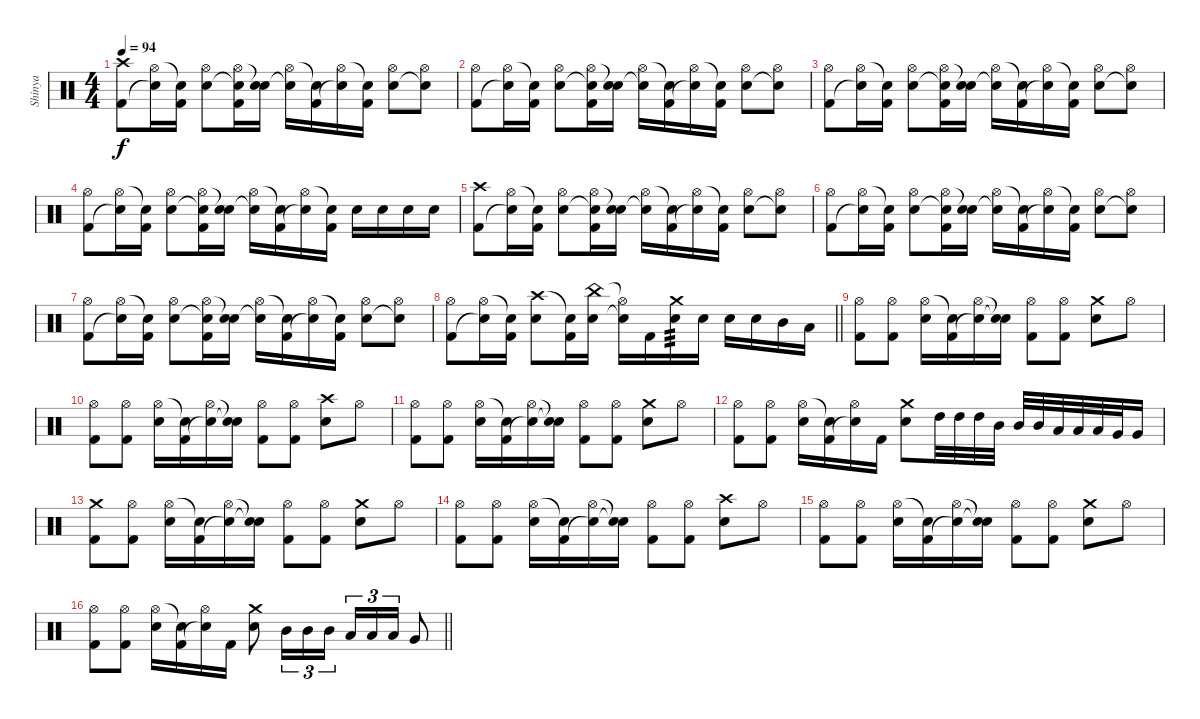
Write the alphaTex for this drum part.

\track ("Shinya" "Shinya") {instrument percussion}
\staff {score}
\articulation defaults
\ts (4 4)
\tempo 94
\clef neutral
\ks c
("Crash high (hit)" "Kick (hit) 2").8{dy f} ("Hi-Hat (open)" "Snare (hit)"{t}).16 ("Snare (hit)"{t} "Kick (hit) 2").16 ("Hi-Hat (open)" "Snare (hit) 2").8 ("Hi-Hat (open)" "Snare (hit)"{t} "Kick (hit) 2").16 ("Snare (hit)"{t} "Snare (hit) 2").16 ("Hi-Hat (open)" "Snare (hit)"{t}).16 ("Snare (hit)"{t} "Kick (hit) 2").16 ("Hi-Hat (open)" "Snare (hit)"{t}).16 ("Snare (hit)"{t} "Kick (hit) 2").16 ("Hi-Hat (open)" "Snare (hit) 2").8 ("Hi-Hat (open)" "Snare (hit)"{t}).8 |
("Hi-Hat (open)" "Kick (hit) 2").8 ("Hi-Hat (open)" "Snare (hit)"{t}).16 ("Snare (hit)"{t} "Kick (hit) 2").16 ("Hi-Hat (open)" "Snare (hit) 2").8 ("Hi-Hat (open)" "Snare (hit)"{t} "Kick (hit) 2").16 ("Snare (hit)"{t} "Snare (hit) 2").16 ("Hi-Hat (open)" "Snare (hit)"{t}).16 ("Snare (hit)"{t} "Kick (hit) 2").16 ("Hi-Hat (open)" "Snare (hit)"{t}).16 ("Snare (hit)"{t} "Kick (hit) 2").16 ("Hi-Hat (open)" "Snare (hit) 2").8 ("Hi-Hat (open)" "Snare (hit)"{t}).8 |
("Hi-Hat (open)" "Kick (hit) 2").8 ("Hi-Hat (open)" "Snare (hit)"{t}).16 ("Snare (hit)"{t} "Kick (hit) 2").16 ("Hi-Hat (open)" "Snare (hit) 2").8 ("Hi-Hat (open)" "Snare (hit)"{t} "Kick (hit) 2").16 ("Snare (hit)"{t} "Snare (hit) 2").16 ("Hi-Hat (open)" "Snare (hit)"{t}).16 ("Snare (hit)"{t} "Kick (hit) 2").16 ("Hi-Hat (open)" "Snare (hit)"{t}).16 ("Snare (hit)"{t} "Kick (hit) 2").16 ("Hi-Hat (open)" "Snare (hit) 2").8 ("Hi-Hat (open)" "Snare (hit)"{t}).8 |
("Hi-Hat (open)" "Kick (hit) 2").8 ("Hi-Hat (open)" "Snare (hit)"{t}).16 ("Snare (hit)"{t} "Kick (hit) 2").16 ("Hi-Hat (open)" "Snare (hit) 2").8 ("Hi-Hat (open)" "Snare (hit)"{t} "Kick (hit) 2").16 ("Snare (hit)"{t} "Snare (hit) 2").16 ("Hi-Hat (open)" "Snare (hit)"{t}).16 ("Snare (hit)"{t} "Kick (hit) 2").16 ("Hi-Hat (open)" "Snare (hit)"{t}).16 ("Snare (hit)"{t} "Kick (hit) 2").16 "Snare (hit) 2".16 "Snare (hit) 2".16 "Snare (hit) 2".16 "Snare (hit) 2".16 |
("Crash high (hit)" "Kick (hit) 2").8 ("Hi-Hat (open)" "Snare (hit)"{t}).16 ("Snare (hit)"{t} "Kick (hit) 2").16 ("Hi-Hat (open)" "Snare (hit) 2").8 ("Hi-Hat (open)" "Snare (hit)"{t} "Kick (hit) 2").16 ("Snare (hit)"{t} "Snare (hit) 2").16 ("Hi-Hat (open)" "Snare (hit)"{t}).16 ("Snare (hit)"{t} "Kick (hit) 2").16 ("Hi-Hat (open)" "Snare (hit)"{t}).16 ("Snare (hit)"{t} "Kick (hit) 2").16 ("Hi-Hat (open)" "Snare (hit) 2").8 ("Hi-Hat (open)" "Snare (hit)"{t}).8 |
("Hi-Hat (open)" "Kick (hit) 2").8 ("Hi-Hat (open)" "Snare (hit)"{t}).16 ("Snare (hit)"{t} "Kick (hit) 2").16 ("Hi-Hat (open)" "Snare (hit) 2").8 ("Hi-Hat (open)" "Snare (hit)"{t} "Kick (hit) 2").16 ("Snare (hit)"{t} "Snare (hit) 2").16 ("Hi-Hat (open)" "Snare (hit)"{t}).16 ("Snare (hit)"{t} "Kick (hit) 2").16 ("Hi-Hat (open)" "Snare (hit)"{t}).16 ("Snare (hit)"{t} "Kick (hit) 2").16 ("Hi-Hat (open)" "Snare (hit) 2").8 ("Hi-Hat (open)" "Snare (hit)"{t}).8 |
("Hi-Hat (open)" "Kick (hit) 2").8 ("Hi-Hat (open)" "Snare (hit)"{t}).16 ("Snare (hit)"{t} "Kick (hit) 2").16 ("Hi-Hat (open)" "Snare (hit) 2").8 ("Hi-Hat (open)" "Snare (hit)"{t} "Kick (hit) 2").16 ("Snare (hit)"{t} "Snare (hit) 2").16 ("Hi-Hat (open)" "Snare (hit)"{t}).16 ("Snare (hit)"{t} "Kick (hit) 2").16 ("Hi-Hat (open)" "Snare (hit)"{t}).16 ("Snare (hit)"{t} "Kick (hit) 2").16 ("Hi-Hat (open)" "Snare (hit) 2").8 ("Hi-Hat (open)" "Snare (hit)"{t}).8 |
\barLineRight lightlight
("Hi-Hat (open)" "Kick (hit) 2").8 ("Hi-Hat (open)" "Snare (hit)"{t}).16 ("Snare (hit)"{t} "Kick (hit) 2").16 ("Crash high (hit)" "Snare (hit) 2").8 ("Snare (hit)"{t} "Kick (hit) 2").16 ("China (hit)" "Snare (hit) 2").16 ("Hi-Hat (open)"{t} "Snare (hit)"{t}).16 "Kick (hit) 2".16 ("Crash medium (hit)" "Snare (hit) 2").16{tp 3} "Snare (hit) 2".16 "Snare (hit) 2".16 "Snare (hit) 2".16 "Mid Tom (hit)".16 "Low Tom (hit)".16 |
("Hi-Hat (open)" "Kick (hit) 2").8 ("Hi-Hat (open)" "Kick (hit) 2").8 ("Hi-Hat (open)" "Snare (hit) 2").16 ("Snare (hit)"{t} "Kick (hit) 2").16 ("Hi-Hat (open)" "Snare (hit)"{t}).16 ("Snare (hit)"{t} "Snare (hit)"{t}).16 ("Hi-Hat (open)" "Kick (hit) 2").8 ("Hi-Hat (open)" "Kick (hit) 2").8 ("Crash medium (hit)" "Snare (hit) 2").8 "Hi-Hat (open)".8 |
("Hi-Hat (open)" "Kick (hit) 2").8 ("Hi-Hat (open)" "Kick (hit) 2").8 ("Hi-Hat (open)" "Snare (hit) 2").16 ("Snare (hit)"{t} "Kick (hit) 2").16 ("Hi-Hat (open)" "Snare (hit)"{t}).16 ("Snare (hit)"{t} "Snare (hit)"{t}).16 ("Hi-Hat (open)" "Kick (hit) 2").8 ("Hi-Hat (open)" "Kick (hit) 2").8 ("Crash high (hit)" "Snare (hit) 2").8 "Hi-Hat (open)".8 |
("Hi-Hat (open)" "Kick (hit) 2").8 ("Hi-Hat (open)" "Kick (hit) 2").8 ("Hi-Hat (open)" "Snare (hit) 2").16 ("Snare (hit)"{t} "Kick (hit) 2").16 ("Hi-Hat (open)" "Snare (hit)"{t}).16 ("Snare (hit)"{t} "Snare (hit)"{t}).16 ("Hi-Hat (open)" "Kick (hit) 2").8 ("Hi-Hat (open)" "Kick (hit) 2").8 ("Crash medium (hit)" "Snare (hit) 2").8 "Hi-Hat (open)".8 |
("Hi-Hat (open)" "Kick (hit) 2").8 ("Hi-Hat (open)" "Kick (hit) 2").8 ("Hi-Hat (open)" "Snare (hit) 2").16 ("Snare (hit)"{t} "Kick (hit) 2").16 ("Hi-Hat (open)" "Snare (hit)"{t}).16 "Kick (hit) 2".16 ("Crash medium (hit)" "Snare (hit) 2").8 "High Tom (hit)".32 "High Tom (hit)".32 "High Tom (hit)".32 "Mid Tom (hit)".32 "Mid Tom (hit)".32 "Mid Tom (hit)".32 "Low Tom (hit)".32 "Low Tom (hit)".32 "Low Tom (hit)".32 "Very Low Tom (hit)".32 "Very Low Tom (hit)".16 |
("Crash medium (hit)" "Kick (hit) 2").8 ("Hi-Hat (open)" "Kick (hit) 2").8 ("Hi-Hat (open)" "Snare (hit) 2").16 ("Snare (hit)"{t} "Kick (hit) 2").16 ("Hi-Hat (open)" "Snare (hit)"{t}).16 ("Snare (hit)"{t} "Snare (hit)"{t}).16 ("Hi-Hat (open)" "Kick (hit) 2").8 ("Hi-Hat (open)" "Kick (hit) 2").8 ("Crash medium (hit)" "Snare (hit) 2").8 "Hi-Hat (open)".8 |
("Hi-Hat (open)" "Kick (hit) 2").8 ("Hi-Hat (open)" "Kick (hit) 2").8 ("Hi-Hat (open)" "Snare (hit) 2").16 ("Snare (hit)"{t} "Kick (hit) 2").16 ("Hi-Hat (open)" "Snare (hit)"{t}).16 ("Snare (hit)"{t} "Snare (hit)"{t}).16 ("Hi-Hat (open)" "Kick (hit) 2").8 ("Hi-Hat (open)" "Kick (hit) 2").8 ("Crash high (hit)" "Snare (hit) 2").8 "Hi-Hat (open)".8 |
("Hi-Hat (open)" "Kick (hit) 2").8 ("Hi-Hat (open)" "Kick (hit) 2").8 ("Hi-Hat (open)" "Snare (hit) 2").16 ("Snare (hit)"{t} "Kick (hit) 2").16 ("Hi-Hat (open)" "Snare (hit)"{t}).16 ("Snare (hit)"{t} "Snare (hit)"{t}).16 ("Hi-Hat (open)" "Kick (hit) 2").8 ("Hi-Hat (open)" "Kick (hit) 2").8 ("Crash medium (hit)" "Snare (hit) 2").8 "Hi-Hat (open)".8 |
\barLineRight lightlight
("Hi-Hat (open)" "Kick (hit) 2").8 ("Hi-Hat (open)" "Kick (hit) 2").8 ("Hi-Hat (open)" "Snare (hit) 2").16 ("Snare (hit)"{t} "Kick (hit) 2").16 ("Hi-Hat (open)" "Snare (hit)"{t}).16 "Kick (hit) 2".16 ("Crash medium (hit)" "Snare (hit) 2").8 "Mid Tom (hit)".16{tu (3 2)} "Mid Tom (hit)".16{tu (3 2)} "Mid Tom (hit)".16{tu (3 2)} "Low Tom (hit)".16{tu (3 2)} "Low Tom (hit)".16{tu (3 2)} "Low Tom (hit)".16{tu (3 2)} "Very Low Tom (hit)".8
